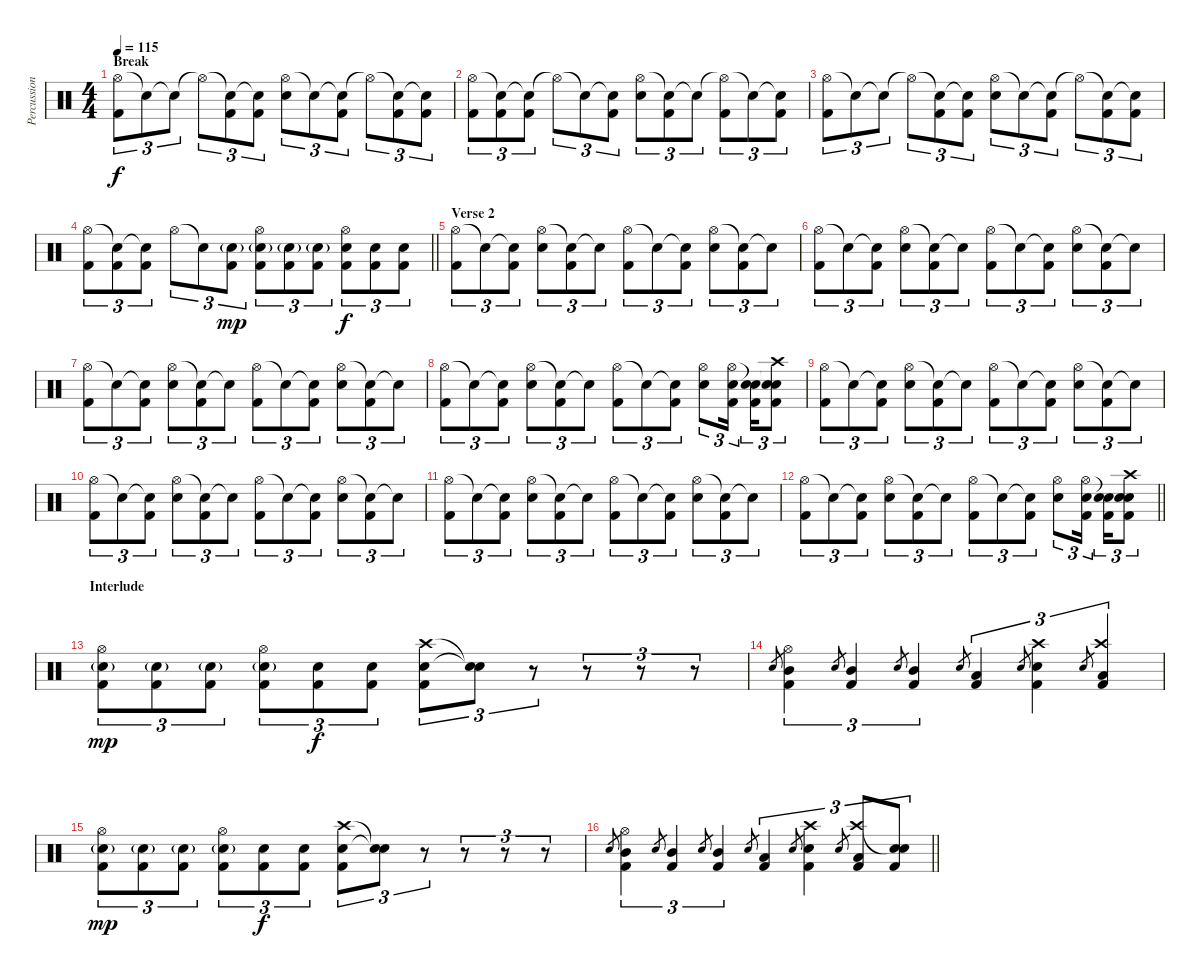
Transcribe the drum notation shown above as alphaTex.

\track ("Percussion" "Percussion") {instrument percussion}
\staff {score}
\articulation defaults
\ts (4 4)
\section ("" "Break")
\tempo 115
\clef neutral
\ks c
("Hi-Hat (open)" "Kick (hit) 2").8{tu (3 2) dy f} "Snare (hit)"{t}.8{tu (3 2)} "Snare (hit)"{t}.8{tu (3 2)} "Hi-Hat (open)"{t}.8{tu (3 2)} ("Snare (hit)"{t} "Kick (hit) 2").8{tu (3 2)} ("Snare (hit)"{t} "Kick (hit) 2").8{tu (3 2)} ("Hi-Hat (open)" "Electric Snare (hit)").8{tu (3 2)} "Snare (hit)"{t}.8{tu (3 2)} ("Snare (hit)"{t} "Kick (hit) 2").8{tu (3 2)} "Hi-Hat (open)"{t}.8{tu (3 2)} ("Snare (hit)"{t} "Kick (hit) 2").8{tu (3 2)} ("Snare (hit)"{t} "Kick (hit) 2").8{tu (3 2)} |
("Hi-Hat (open)" "Kick (hit) 2").8{tu (3 2)} ("Snare (hit)"{t} "Kick (hit) 2").8{tu (3 2)} ("Snare (hit)"{t} "Kick (hit) 2").8{tu (3 2)} "Hi-Hat (open)"{t}.8{tu (3 2)} "Snare (hit)"{t}.8{tu (3 2)} ("Snare (hit)"{t} "Kick (hit) 2").8{tu (3 2)} ("Hi-Hat (open)" "Electric Snare (hit)").8{tu (3 2)} ("Snare (hit)"{t} "Kick (hit) 2").8{tu (3 2)} "Snare (hit)"{t}.8{tu (3 2)} ("Hi-Hat (open)"{t} "Kick (hit) 2").8{tu (3 2)} "Snare (hit)"{t}.8{tu (3 2)} ("Snare (hit)"{t} "Kick (hit) 2").8{tu (3 2)} |
("Hi-Hat (open)" "Kick (hit) 2").8{tu (3 2)} "Snare (hit)"{t}.8{tu (3 2)} "Snare (hit)"{t}.8{tu (3 2)} "Hi-Hat (open)"{t}.8{tu (3 2)} ("Snare (hit)"{t} "Kick (hit) 2").8{tu (3 2)} ("Snare (hit)"{t} "Kick (hit) 2").8{tu (3 2)} ("Hi-Hat (open)" "Electric Snare (hit)").8{tu (3 2)} "Snare (hit)"{t}.8{tu (3 2)} ("Snare (hit)"{t} "Kick (hit) 2").8{tu (3 2)} "Hi-Hat (open)"{t}.8{tu (3 2)} ("Snare (hit)"{t} "Kick (hit) 2").8{tu (3 2)} ("Snare (hit)"{t} "Kick (hit) 2").8{tu (3 2)} |
\barLineRight lightlight
("Hi-Hat (open)" "Kick (hit) 2").8{tu (3 2)} ("Snare (hit)"{t} "Kick (hit) 2").8{tu (3 2)} ("Snare (hit)"{t} "Kick (hit) 2").8{tu (3 2)} "Hi-Hat (open)".8{tu (3 2)} "Snare (hit)"{t}.8{tu (3 2)} ("Electric Snare (hit)"{g} "Kick (hit) 2").8{tu (3 2) dy mp} ("Hi-Hat (open)" "Electric Snare (hit)"{g} "Kick (hit) 2").8{tu (3 2)} ("Electric Snare (hit)"{g} "Kick (hit) 2").8{tu (3 2)} ("Electric Snare (hit)"{g} "Kick (hit) 2").8{tu (3 2)} ("Hi-Hat (open)" "Electric Snare (hit)" "Kick (hit) 2").8{tu (3 2) dy f} ("Electric Snare (hit)" "Kick (hit) 2").8{tu (3 2)} ("Electric Snare (hit)" "Kick (hit) 2").8{tu (3 2)} |
\section ("" "Verse 2")
("Hi-Hat (open)" "Kick (hit) 2").8{tu (3 2)} "Snare (hit)"{t}.8{tu (3 2)} ("Snare (hit)"{t} "Kick (hit) 2").8{tu (3 2)} ("Hi-Hat (open)" "Electric Snare (hit)").8{tu (3 2)} ("Snare (hit)"{t} "Kick (hit) 2").8{tu (3 2)} "Snare (hit)"{t}.8{tu (3 2)} ("Hi-Hat (open)" "Kick (hit) 2").8{tu (3 2)} "Snare (hit)"{t}.8{tu (3 2)} ("Snare (hit)"{t} "Kick (hit) 2").8{tu (3 2)} ("Hi-Hat (open)" "Electric Snare (hit)").8{tu (3 2)} ("Snare (hit)"{t} "Kick (hit) 2").8{tu (3 2)} "Snare (hit)"{t}.8{tu (3 2)} |
("Hi-Hat (open)" "Kick (hit) 2").8{tu (3 2)} "Snare (hit)"{t}.8{tu (3 2)} ("Snare (hit)"{t} "Kick (hit) 2").8{tu (3 2)} ("Hi-Hat (open)" "Electric Snare (hit)").8{tu (3 2)} ("Snare (hit)"{t} "Kick (hit) 2").8{tu (3 2)} "Snare (hit)"{t}.8{tu (3 2)} ("Hi-Hat (open)" "Kick (hit) 2").8{tu (3 2)} "Snare (hit)"{t}.8{tu (3 2)} ("Snare (hit)"{t} "Kick (hit) 2").8{tu (3 2)} ("Hi-Hat (open)" "Electric Snare (hit)").8{tu (3 2)} ("Snare (hit)"{t} "Kick (hit) 2").8{tu (3 2)} "Snare (hit)"{t}.8{tu (3 2)} |
("Hi-Hat (open)" "Kick (hit) 2").8{tu (3 2)} "Snare (hit)"{t}.8{tu (3 2)} ("Snare (hit)"{t} "Kick (hit) 2").8{tu (3 2)} ("Hi-Hat (open)" "Electric Snare (hit)").8{tu (3 2)} ("Snare (hit)"{t} "Kick (hit) 2").8{tu (3 2)} "Snare (hit)"{t}.8{tu (3 2)} ("Hi-Hat (open)" "Kick (hit) 2").8{tu (3 2)} "Snare (hit)"{t}.8{tu (3 2)} ("Snare (hit)"{t} "Kick (hit) 2").8{tu (3 2)} ("Hi-Hat (open)" "Electric Snare (hit)").8{tu (3 2)} ("Snare (hit)"{t} "Kick (hit) 2").8{tu (3 2)} "Snare (hit)"{t}.8{tu (3 2)} |
("Hi-Hat (open)" "Kick (hit) 2").8{tu (3 2)} "Snare (hit)"{t}.8{tu (3 2)} ("Snare (hit)"{t} "Kick (hit) 2").8{tu (3 2)} ("Hi-Hat (open)" "Electric Snare (hit)").8{tu (3 2)} ("Snare (hit)"{t} "Kick (hit) 2").8{tu (3 2)} "Snare (hit)"{t}.8{tu (3 2)} ("Hi-Hat (open)" "Kick (hit) 2").8{tu (3 2)} "Snare (hit)"{t}.8{tu (3 2)} ("Snare (hit)"{t} "Kick (hit) 2").8{tu (3 2)} ("Hi-Hat (open)" "Electric Snare (hit)").8{tu (3 2)} ("Hi-Hat (open)" "Electric Snare (hit)" "Kick (hit) 2").16{tu (3 2) beam splitsecondary} ("Snare (hit)"{t} "Electric Snare (hit)" "Kick (hit) 2").16{tu (3 2)} ("Snare (hit)"{t} "Crash high (hit)" "Electric Snare (hit)" "Kick (hit) 2").8{tu (3 2)} |
("Hi-Hat (open)" "Kick (hit) 2").8{tu (3 2)} "Snare (hit)"{t}.8{tu (3 2)} ("Snare (hit)"{t} "Kick (hit) 2").8{tu (3 2)} ("Hi-Hat (open)" "Electric Snare (hit)").8{tu (3 2)} ("Snare (hit)"{t} "Kick (hit) 2").8{tu (3 2)} "Snare (hit)"{t}.8{tu (3 2)} ("Hi-Hat (open)" "Kick (hit) 2").8{tu (3 2)} "Snare (hit)"{t}.8{tu (3 2)} ("Snare (hit)"{t} "Kick (hit) 2").8{tu (3 2)} ("Hi-Hat (open)" "Electric Snare (hit)").8{tu (3 2)} ("Snare (hit)"{t} "Kick (hit) 2").8{tu (3 2)} "Snare (hit)"{t}.8{tu (3 2)} |
("Hi-Hat (open)" "Kick (hit) 2").8{tu (3 2)} "Snare (hit)"{t}.8{tu (3 2)} ("Snare (hit)"{t} "Kick (hit) 2").8{tu (3 2)} ("Hi-Hat (open)" "Electric Snare (hit)").8{tu (3 2)} ("Snare (hit)"{t} "Kick (hit) 2").8{tu (3 2)} "Snare (hit)"{t}.8{tu (3 2)} ("Hi-Hat (open)" "Kick (hit) 2").8{tu (3 2)} "Snare (hit)"{t}.8{tu (3 2)} ("Snare (hit)"{t} "Kick (hit) 2").8{tu (3 2)} ("Hi-Hat (open)" "Electric Snare (hit)").8{tu (3 2)} ("Snare (hit)"{t} "Kick (hit) 2").8{tu (3 2)} "Snare (hit)"{t}.8{tu (3 2)} |
("Hi-Hat (open)" "Kick (hit) 2").8{tu (3 2)} "Snare (hit)"{t}.8{tu (3 2)} ("Snare (hit)"{t} "Kick (hit) 2").8{tu (3 2)} ("Hi-Hat (open)" "Electric Snare (hit)").8{tu (3 2)} ("Snare (hit)"{t} "Kick (hit) 2").8{tu (3 2)} "Snare (hit)"{t}.8{tu (3 2)} ("Hi-Hat (open)" "Kick (hit) 2").8{tu (3 2)} "Snare (hit)"{t}.8{tu (3 2)} ("Snare (hit)"{t} "Kick (hit) 2").8{tu (3 2)} ("Hi-Hat (open)" "Electric Snare (hit)").8{tu (3 2)} ("Snare (hit)"{t} "Kick (hit) 2").8{tu (3 2)} "Snare (hit)"{t}.8{tu (3 2)} |
\barLineRight lightlight
("Hi-Hat (open)" "Kick (hit) 2").8{tu (3 2)} "Snare (hit)"{t}.8{tu (3 2)} ("Snare (hit)"{t} "Kick (hit) 2").8{tu (3 2)} ("Hi-Hat (open)" "Electric Snare (hit)").8{tu (3 2)} ("Snare (hit)"{t} "Kick (hit) 2").8{tu (3 2)} "Snare (hit)"{t}.8{tu (3 2)} ("Hi-Hat (open)" "Kick (hit) 2").8{tu (3 2)} "Snare (hit)"{t}.8{tu (3 2)} ("Snare (hit)"{t} "Kick (hit) 2").8{tu (3 2)} ("Hi-Hat (open)" "Electric Snare (hit)").8{tu (3 2)} ("Hi-Hat (open)" "Electric Snare (hit)" "Kick (hit) 2").16{tu (3 2) beam splitsecondary} ("Snare (hit)"{t} "Electric Snare (hit)" "Kick (hit) 2").16{tu (3 2)} ("Snare (hit)"{t} "Crash high (hit)" "Electric Snare (hit)" "Kick (hit) 2").8{tu (3 2)} |
\section ("" "Interlude")
("Hi-Hat (open)" "Electric Snare (hit)"{g} "Kick (hit) 2").8{tu (3 2) dy mp} ("Electric Snare (hit)"{g} "Kick (hit) 2").8{tu (3 2)} ("Electric Snare (hit)"{g} "Kick (hit) 2").8{tu (3 2)} ("Hi-Hat (open)" "Electric Snare (hit)"{g} "Kick (hit) 2").8{tu (3 2)} ("Electric Snare (hit)" "Kick (hit) 2").8{tu (3 2) dy f} ("Electric Snare (hit)" "Kick (hit) 2").8{tu (3 2)} ("Crash high (hit)" "Electric Snare (hit)" "Kick (hit) 2").8{tu (3 2)} ("Snare (hit)"{t} "Snare (hit)"{t}).8{tu (3 2)} r.8{tu (3 2)} r.8{tu (3 2)} r.8{tu (3 2)} r.8{tu (3 2)} |
"Electric Snare (hit)".8{gr} ("Hi-Hat (open)" "Mid Tom (hit)" "Kick (hit) 2").4{tu (3 2)} "Electric Snare (hit)".8{gr} ("Mid Tom (hit)" "Kick (hit) 2").4{tu (3 2)} "Electric Snare (hit)".8{gr} ("Mid Tom (hit)" "Kick (hit) 2").4{tu (3 2)} "Electric Snare (hit)".8{gr} ("Low Tom (hit)" "Kick (hit) 2").4{tu (3 2)} "Electric Snare (hit)".8{gr} ("Crash high (hit)" "Electric Snare (hit)" "Kick (hit) 2").4{tu (3 2)} "Electric Snare (hit)".8{gr} ("Crash high (hit)" "Low Tom (hit)" "Kick (hit) 2").4{tu (3 2)} |
("Hi-Hat (open)" "Electric Snare (hit)"{g} "Kick (hit) 2").8{tu (3 2) dy mp} ("Electric Snare (hit)"{g} "Kick (hit) 2").8{tu (3 2)} ("Electric Snare (hit)"{g} "Kick (hit) 2").8{tu (3 2)} ("Hi-Hat (open)" "Electric Snare (hit)"{g} "Kick (hit) 2").8{tu (3 2)} ("Electric Snare (hit)" "Kick (hit) 2").8{tu (3 2) dy f} ("Electric Snare (hit)" "Kick (hit) 2").8{tu (3 2)} ("Crash high (hit)" "Electric Snare (hit)" "Kick (hit) 2").8{tu (3 2)} ("Snare (hit)"{t} "Snare (hit)"{t}).8{tu (3 2)} r.8{tu (3 2)} r.8{tu (3 2)} r.8{tu (3 2)} r.8{tu (3 2)} |
\barLineRight lightlight "Electric Snare (hit)".8{gr}
("Hi-Hat (open)" "Mid Tom (hit)" "Kick (hit) 2").4{tu (3 2)} "Electric Snare (hit)".8{gr} ("Mid Tom (hit)" "Kick (hit) 2").4{tu (3 2)} "Electric Snare (hit)".8{gr} ("Mid Tom (hit)" "Kick (hit) 2").4{tu (3 2)} "Electric Snare (hit)".8{gr} ("Low Tom (hit)" "Kick (hit) 2").4{tu (3 2)} "Electric Snare (hit)".8{gr} ("Crash high (hit)" "Electric Snare (hit)" "Kick (hit) 2").4{tu (3 2)} "Electric Snare (hit)".8{gr} ("Crash high (hit)" "Low Tom (hit)" "Kick (hit) 2").8{tu (3 2)} ("Snare (hit)"{t} "Electric Snare (hit)" "Kick (hit) 2").8{tu (3 2)}
